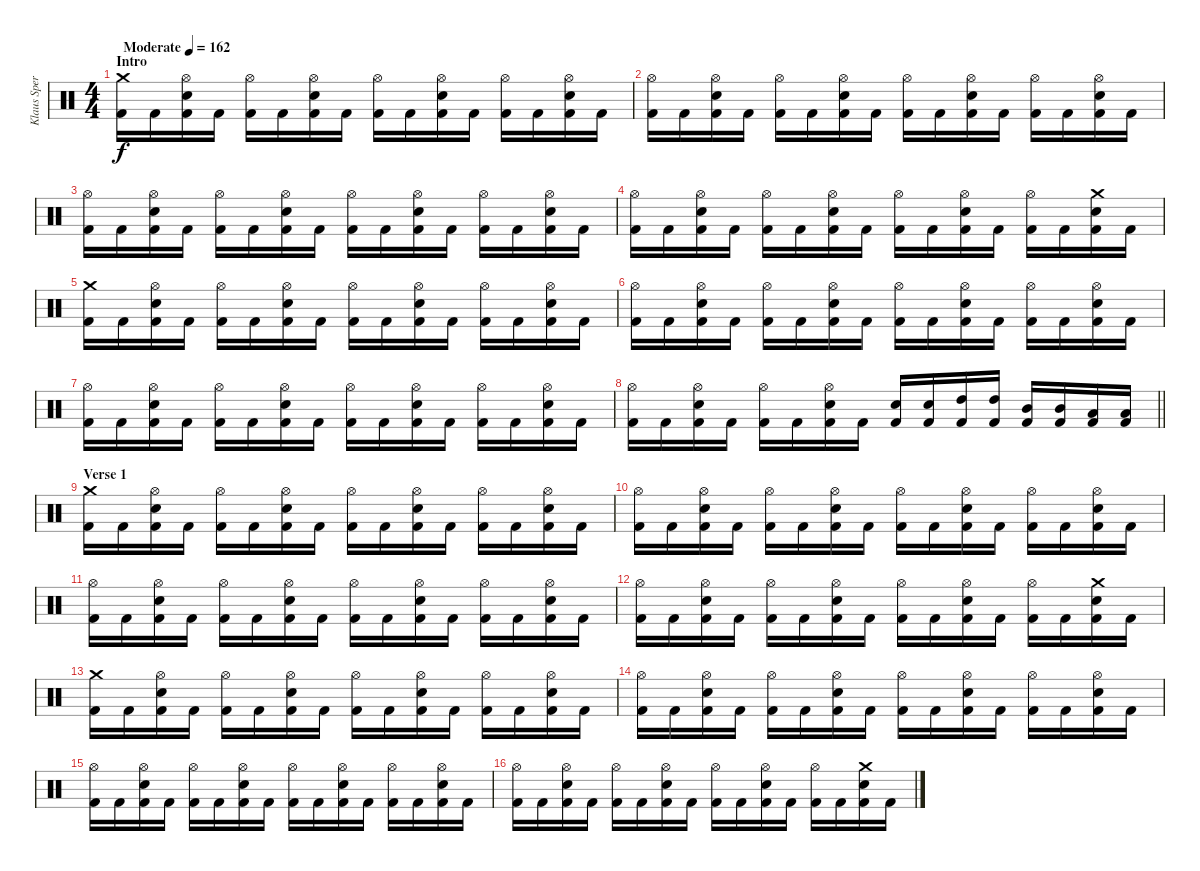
\track ("Klaus Sperling" "Klaus Sper") {instrument percussion}
\staff {score}
\articulation defaults
\ts (4 4)
\section ("" "Intro")
\tempo (162 "Moderate")
\clef neutral
\ks c
("Crash medium (hit)" "Kick (hit) 2").16{dy f} "Kick (hit) 2".16 ("Hi-Hat (open)" "Electric Snare (hit)" "Kick (hit) 2").16 "Kick (hit) 2".16 ("Hi-Hat (open)" "Kick (hit) 2").16 "Kick (hit) 2".16 ("Hi-Hat (open)" "Electric Snare (hit)" "Kick (hit) 2").16 "Kick (hit) 2".16 ("Hi-Hat (open)" "Kick (hit) 2").16 "Kick (hit) 2".16 ("Hi-Hat (open)" "Electric Snare (hit)" "Kick (hit) 2").16 "Kick (hit) 2".16 ("Hi-Hat (open)" "Kick (hit) 2").16 "Kick (hit) 2".16 ("Hi-Hat (open)" "Electric Snare (hit)" "Kick (hit) 2").16 "Kick (hit) 2".16 |
("Hi-Hat (open)" "Kick (hit) 2").16 "Kick (hit) 2".16 ("Hi-Hat (open)" "Electric Snare (hit)" "Kick (hit) 2").16 "Kick (hit) 2".16 ("Hi-Hat (open)" "Kick (hit) 2").16 "Kick (hit) 2".16 ("Hi-Hat (open)" "Electric Snare (hit)" "Kick (hit) 2").16 "Kick (hit) 2".16 ("Hi-Hat (open)" "Kick (hit) 2").16 "Kick (hit) 2".16 ("Hi-Hat (open)" "Electric Snare (hit)" "Kick (hit) 2").16 "Kick (hit) 2".16 ("Hi-Hat (open)" "Kick (hit) 2").16 "Kick (hit) 2".16 ("Hi-Hat (open)" "Electric Snare (hit)" "Kick (hit) 2").16 "Kick (hit) 2".16 |
("Hi-Hat (open)" "Kick (hit) 2").16 "Kick (hit) 2".16 ("Hi-Hat (open)" "Electric Snare (hit)" "Kick (hit) 2").16 "Kick (hit) 2".16 ("Hi-Hat (open)" "Kick (hit) 2").16 "Kick (hit) 2".16 ("Hi-Hat (open)" "Electric Snare (hit)" "Kick (hit) 2").16 "Kick (hit) 2".16 ("Hi-Hat (open)" "Kick (hit) 2").16 "Kick (hit) 2".16 ("Hi-Hat (open)" "Electric Snare (hit)" "Kick (hit) 2").16 "Kick (hit) 2".16 ("Hi-Hat (open)" "Kick (hit) 2").16 "Kick (hit) 2".16 ("Hi-Hat (open)" "Electric Snare (hit)" "Kick (hit) 2").16 "Kick (hit) 2".16 |
("Hi-Hat (open)" "Kick (hit) 2").16 "Kick (hit) 2".16 ("Hi-Hat (open)" "Electric Snare (hit)" "Kick (hit) 2").16 "Kick (hit) 2".16 ("Hi-Hat (open)" "Kick (hit) 2").16 "Kick (hit) 2".16 ("Hi-Hat (open)" "Electric Snare (hit)" "Kick (hit) 2").16 "Kick (hit) 2".16 ("Hi-Hat (open)" "Kick (hit) 2").16 "Kick (hit) 2".16 ("Hi-Hat (open)" "Electric Snare (hit)" "Kick (hit) 2").16 "Kick (hit) 2".16 ("Hi-Hat (open)" "Kick (hit) 2").16 "Kick (hit) 2".16 ("Crash medium (hit)" "Electric Snare (hit)" "Kick (hit) 2").16 "Kick (hit) 2".16 |
("Crash medium (hit)" "Kick (hit) 2").16 "Kick (hit) 2".16 ("Hi-Hat (open)" "Electric Snare (hit)" "Kick (hit) 2").16 "Kick (hit) 2".16 ("Hi-Hat (open)" "Kick (hit) 2").16 "Kick (hit) 2".16 ("Hi-Hat (open)" "Electric Snare (hit)" "Kick (hit) 2").16 "Kick (hit) 2".16 ("Hi-Hat (open)" "Kick (hit) 2").16 "Kick (hit) 2".16 ("Hi-Hat (open)" "Electric Snare (hit)" "Kick (hit) 2").16 "Kick (hit) 2".16 ("Hi-Hat (open)" "Kick (hit) 2").16 "Kick (hit) 2".16 ("Hi-Hat (open)" "Electric Snare (hit)" "Kick (hit) 2").16 "Kick (hit) 2".16 |
("Hi-Hat (open)" "Kick (hit) 2").16 "Kick (hit) 2".16 ("Hi-Hat (open)" "Electric Snare (hit)" "Kick (hit) 2").16 "Kick (hit) 2".16 ("Hi-Hat (open)" "Kick (hit) 2").16 "Kick (hit) 2".16 ("Hi-Hat (open)" "Electric Snare (hit)" "Kick (hit) 2").16 "Kick (hit) 2".16 ("Hi-Hat (open)" "Kick (hit) 2").16 "Kick (hit) 2".16 ("Hi-Hat (open)" "Electric Snare (hit)" "Kick (hit) 2").16 "Kick (hit) 2".16 ("Hi-Hat (open)" "Kick (hit) 2").16 "Kick (hit) 2".16 ("Hi-Hat (open)" "Electric Snare (hit)" "Kick (hit) 2").16 "Kick (hit) 2".16 |
("Hi-Hat (open)" "Kick (hit) 2").16 "Kick (hit) 2".16 ("Hi-Hat (open)" "Electric Snare (hit)" "Kick (hit) 2").16 "Kick (hit) 2".16 ("Hi-Hat (open)" "Kick (hit) 2").16 "Kick (hit) 2".16 ("Hi-Hat (open)" "Electric Snare (hit)" "Kick (hit) 2").16 "Kick (hit) 2".16 ("Hi-Hat (open)" "Kick (hit) 2").16 "Kick (hit) 2".16 ("Hi-Hat (open)" "Electric Snare (hit)" "Kick (hit) 2").16 "Kick (hit) 2".16 ("Hi-Hat (open)" "Kick (hit) 2").16 "Kick (hit) 2".16 ("Hi-Hat (open)" "Electric Snare (hit)" "Kick (hit) 2").16 "Kick (hit) 2".16 |
\barLineRight lightlight
("Hi-Hat (open)" "Kick (hit) 2").16 "Kick (hit) 2".16 ("Hi-Hat (open)" "Electric Snare (hit)" "Kick (hit) 2").16 "Kick (hit) 2".16 ("Hi-Hat (open)" "Kick (hit) 2").16 "Kick (hit) 2".16 ("Hi-Hat (open)" "Electric Snare (hit)" "Kick (hit) 2").16 "Kick (hit) 2".16 ("Electric Snare (hit)" "Kick (hit) 2").16 ("Electric Snare (hit)" "Kick (hit) 2").16 ("High Tom (hit)" "Kick (hit) 2").16 ("High Tom (hit)" "Kick (hit) 2").16 ("Mid Tom (hit)" "Kick (hit) 2").16 ("Mid Tom (hit)" "Kick (hit) 2").16 ("Low Tom (hit)" "Kick (hit) 2").16 ("Low Tom (hit)" "Kick (hit) 2").16 |
\section ("" "Verse 1")
("Crash medium (hit)" "Kick (hit) 2").16 "Kick (hit) 2".16 ("Hi-Hat (open)" "Electric Snare (hit)" "Kick (hit) 2").16 "Kick (hit) 2".16 ("Hi-Hat (open)" "Kick (hit) 2").16 "Kick (hit) 2".16 ("Hi-Hat (open)" "Electric Snare (hit)" "Kick (hit) 2").16 "Kick (hit) 2".16 ("Hi-Hat (open)" "Kick (hit) 2").16 "Kick (hit) 2".16 ("Hi-Hat (open)" "Electric Snare (hit)" "Kick (hit) 2").16 "Kick (hit) 2".16 ("Hi-Hat (open)" "Kick (hit) 2").16 "Kick (hit) 2".16 ("Hi-Hat (open)" "Electric Snare (hit)" "Kick (hit) 2").16 "Kick (hit) 2".16 |
("Hi-Hat (open)" "Kick (hit) 2").16 "Kick (hit) 2".16 ("Hi-Hat (open)" "Electric Snare (hit)" "Kick (hit) 2").16 "Kick (hit) 2".16 ("Hi-Hat (open)" "Kick (hit) 2").16 "Kick (hit) 2".16 ("Hi-Hat (open)" "Electric Snare (hit)" "Kick (hit) 2").16 "Kick (hit) 2".16 ("Hi-Hat (open)" "Kick (hit) 2").16 "Kick (hit) 2".16 ("Hi-Hat (open)" "Electric Snare (hit)" "Kick (hit) 2").16 "Kick (hit) 2".16 ("Hi-Hat (open)" "Kick (hit) 2").16 "Kick (hit) 2".16 ("Hi-Hat (open)" "Electric Snare (hit)" "Kick (hit) 2").16 "Kick (hit) 2".16 |
("Hi-Hat (open)" "Kick (hit) 2").16 "Kick (hit) 2".16 ("Hi-Hat (open)" "Electric Snare (hit)" "Kick (hit) 2").16 "Kick (hit) 2".16 ("Hi-Hat (open)" "Kick (hit) 2").16 "Kick (hit) 2".16 ("Hi-Hat (open)" "Electric Snare (hit)" "Kick (hit) 2").16 "Kick (hit) 2".16 ("Hi-Hat (open)" "Kick (hit) 2").16 "Kick (hit) 2".16 ("Hi-Hat (open)" "Electric Snare (hit)" "Kick (hit) 2").16 "Kick (hit) 2".16 ("Hi-Hat (open)" "Kick (hit) 2").16 "Kick (hit) 2".16 ("Hi-Hat (open)" "Electric Snare (hit)" "Kick (hit) 2").16 "Kick (hit) 2".16 |
("Hi-Hat (open)" "Kick (hit) 2").16 "Kick (hit) 2".16 ("Hi-Hat (open)" "Electric Snare (hit)" "Kick (hit) 2").16 "Kick (hit) 2".16 ("Hi-Hat (open)" "Kick (hit) 2").16 "Kick (hit) 2".16 ("Hi-Hat (open)" "Electric Snare (hit)" "Kick (hit) 2").16 "Kick (hit) 2".16 ("Hi-Hat (open)" "Kick (hit) 2").16 "Kick (hit) 2".16 ("Hi-Hat (open)" "Electric Snare (hit)" "Kick (hit) 2").16 "Kick (hit) 2".16 ("Hi-Hat (open)" "Kick (hit) 2").16 "Kick (hit) 2".16 ("Crash medium (hit)" "Electric Snare (hit)" "Kick (hit) 2").16 "Kick (hit) 2".16 |
("Crash medium (hit)" "Kick (hit) 2").16 "Kick (hit) 2".16 ("Hi-Hat (open)" "Electric Snare (hit)" "Kick (hit) 2").16 "Kick (hit) 2".16 ("Hi-Hat (open)" "Kick (hit) 2").16 "Kick (hit) 2".16 ("Hi-Hat (open)" "Electric Snare (hit)" "Kick (hit) 2").16 "Kick (hit) 2".16 ("Hi-Hat (open)" "Kick (hit) 2").16 "Kick (hit) 2".16 ("Hi-Hat (open)" "Electric Snare (hit)" "Kick (hit) 2").16 "Kick (hit) 2".16 ("Hi-Hat (open)" "Kick (hit) 2").16 "Kick (hit) 2".16 ("Hi-Hat (open)" "Electric Snare (hit)" "Kick (hit) 2").16 "Kick (hit) 2".16 |
("Hi-Hat (open)" "Kick (hit) 2").16 "Kick (hit) 2".16 ("Hi-Hat (open)" "Electric Snare (hit)" "Kick (hit) 2").16 "Kick (hit) 2".16 ("Hi-Hat (open)" "Kick (hit) 2").16 "Kick (hit) 2".16 ("Hi-Hat (open)" "Electric Snare (hit)" "Kick (hit) 2").16 "Kick (hit) 2".16 ("Hi-Hat (open)" "Kick (hit) 2").16 "Kick (hit) 2".16 ("Hi-Hat (open)" "Electric Snare (hit)" "Kick (hit) 2").16 "Kick (hit) 2".16 ("Hi-Hat (open)" "Kick (hit) 2").16 "Kick (hit) 2".16 ("Hi-Hat (open)" "Electric Snare (hit)" "Kick (hit) 2").16 "Kick (hit) 2".16 |
("Hi-Hat (open)" "Kick (hit) 2").16 "Kick (hit) 2".16 ("Hi-Hat (open)" "Electric Snare (hit)" "Kick (hit) 2").16 "Kick (hit) 2".16 ("Hi-Hat (open)" "Kick (hit) 2").16 "Kick (hit) 2".16 ("Hi-Hat (open)" "Electric Snare (hit)" "Kick (hit) 2").16 "Kick (hit) 2".16 ("Hi-Hat (open)" "Kick (hit) 2").16 "Kick (hit) 2".16 ("Hi-Hat (open)" "Electric Snare (hit)" "Kick (hit) 2").16 "Kick (hit) 2".16 ("Hi-Hat (open)" "Kick (hit) 2").16 "Kick (hit) 2".16 ("Hi-Hat (open)" "Electric Snare (hit)" "Kick (hit) 2").16 "Kick (hit) 2".16 |
("Hi-Hat (open)" "Kick (hit) 2").16 "Kick (hit) 2".16 ("Hi-Hat (open)" "Electric Snare (hit)" "Kick (hit) 2").16 "Kick (hit) 2".16 ("Hi-Hat (open)" "Kick (hit) 2").16 "Kick (hit) 2".16 ("Hi-Hat (open)" "Electric Snare (hit)" "Kick (hit) 2").16 "Kick (hit) 2".16 ("Hi-Hat (open)" "Kick (hit) 2").16 "Kick (hit) 2".16 ("Hi-Hat (open)" "Electric Snare (hit)" "Kick (hit) 2").16 "Kick (hit) 2".16 ("Hi-Hat (open)" "Kick (hit) 2").16 "Kick (hit) 2".16 ("Crash medium (hit)" "Electric Snare (hit)" "Kick (hit) 2").16 "Kick (hit) 2".16
